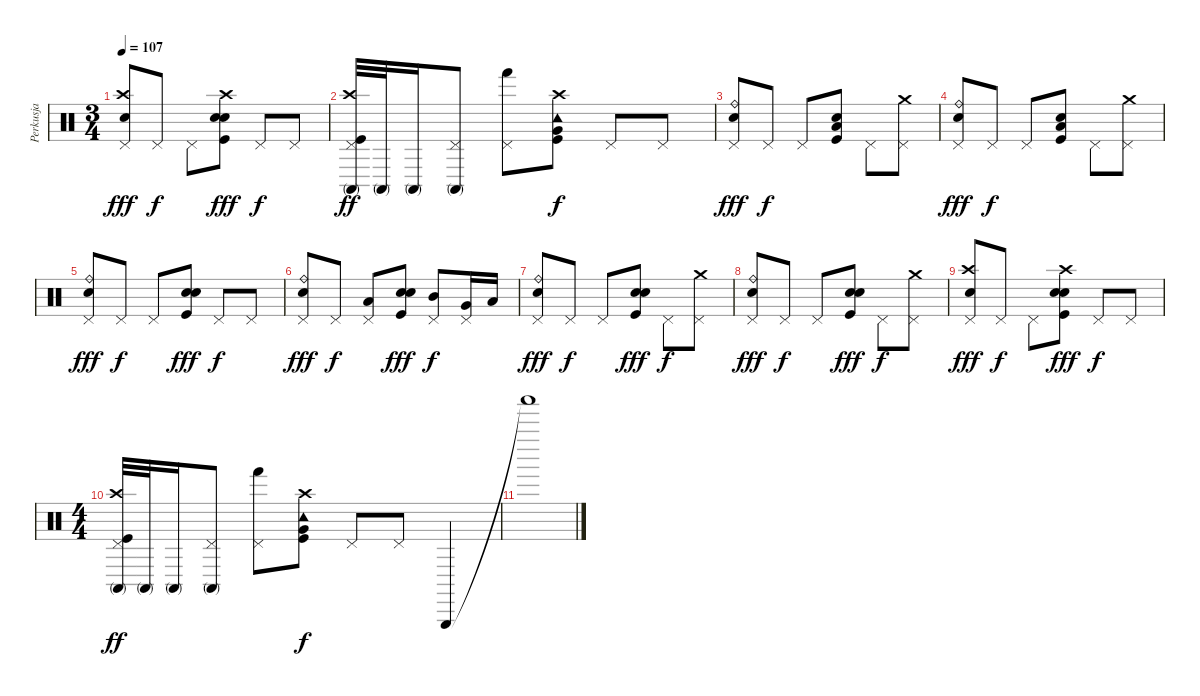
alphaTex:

\track ("Perkusja" "Perkusja") {instrument percussion}
\staff {score}
\articulation defaults
\ts (3 4)
\tempo 107
\clef neutral
\ks c
("Pedal Hi-Hat (hit)" "Crash high (hit)" "Hand Clap (hit)").8{dy fff} "Pedal Hi-Hat (hit)".8{dy f} "Pedal Hi-Hat (hit)".8 ("Electric Snare (hit)" "Kick (hit)" "Crash high (hit)" "Hand Clap (hit)").8{dy fff} "Pedal Hi-Hat (hit)".8{dy f} "Pedal Hi-Hat (hit)".8 |
("Conga high (mute)" "Pedal Hi-Hat (hit)" "Crash high (hit)" "Kick (hit)").32{dy ff} "Conga high (mute)".32 "Conga high (mute)".16 ("Conga high (mute)" "Pedal Hi-Hat (hit)").8 ("Hand (hit)" "Pedal Hi-Hat (hit)").8 ("Tambourine (hit)" "Very Low Tom (hit)" "Crash high (hit)" "Kick (hit)").8{dy f} "Pedal Hi-Hat (hit)".8 "Pedal Hi-Hat (hit)".8 |
("Pedal Hi-Hat (hit)" "Ride (bell)" "Hand Clap (hit)").8{dy fff} "Pedal Hi-Hat (hit)".8{dy f} "Pedal Hi-Hat (hit)".8 ("Electric Snare (hit)" "Kick (hit)" "Low Tom (hit)").8 "Pedal Hi-Hat (hit)".8 ("Pedal Hi-Hat (hit)" "Crash medium (hit)").8 |
("Pedal Hi-Hat (hit)" "Ride (bell)" "Hand Clap (hit)").8{dy fff} "Pedal Hi-Hat (hit)".8{dy f} "Pedal Hi-Hat (hit)".8 ("Electric Snare (hit)" "Kick (hit)" "Low Tom (hit)").8 "Pedal Hi-Hat (hit)".8 ("Pedal Hi-Hat (hit)" "Crash medium (hit)").8 |
("Pedal Hi-Hat (hit)" "Ride (bell)" "Hand Clap (hit)").8{dy fff} "Pedal Hi-Hat (hit)".8{dy f} "Pedal Hi-Hat (hit)".8 ("Electric Snare (hit)" "Kick (hit)" "Hand Clap (hit)").8{dy fff} "Pedal Hi-Hat (hit)".8{dy f} "Pedal Hi-Hat (hit)".8 |
("Pedal Hi-Hat (hit)" "Ride (bell)" "Hand Clap (hit)").8{dy fff} "Pedal Hi-Hat (hit)".8{dy f} ("Pedal Hi-Hat (hit)" "Low Tom (hit)").8 ("Electric Snare (hit)" "Kick (hit)" "Hand Clap (hit)").8{dy fff} ("Pedal Hi-Hat (hit)" "Mid Tom (hit)").8{dy f} ("Pedal Hi-Hat (hit)" "Very Low Tom (hit)").16 "Low Floor Tom (hit)".16 |
("Pedal Hi-Hat (hit)" "Ride (bell)" "Hand Clap (hit)").8{dy fff} "Pedal Hi-Hat (hit)".8{dy f} "Pedal Hi-Hat (hit)".8 ("Electric Snare (hit)" "Kick (hit)" "Hand Clap (hit)").8{dy fff} "Pedal Hi-Hat (hit)".8{dy f} ("Pedal Hi-Hat (hit)" "Crash medium (hit)").8 |
("Pedal Hi-Hat (hit)" "Ride (bell)" "Hand Clap (hit)").8{dy fff} "Pedal Hi-Hat (hit)".8{dy f} "Pedal Hi-Hat (hit)".8 ("Electric Snare (hit)" "Kick (hit)" "Hand Clap (hit)").8{dy fff} "Pedal Hi-Hat (hit)".8{dy f} ("Pedal Hi-Hat (hit)" "Crash medium (hit)").8 |
("Pedal Hi-Hat (hit)" "Crash high (hit)" "Hand Clap (hit)").8{dy fff} "Pedal Hi-Hat (hit)".8{dy f} "Pedal Hi-Hat (hit)".8 ("Electric Snare (hit)" "Kick (hit)" "Crash high (hit)" "Hand Clap (hit)").8{dy fff} "Pedal Hi-Hat (hit)".8{dy f} "Pedal Hi-Hat (hit)".8 |
\ts (4 4)
("Conga high (mute)" "Pedal Hi-Hat (hit)" "Crash high (hit)" "Kick (hit)").32{dy ff} "Conga high (mute)".32 "Conga high (mute)".16 ("Conga high (mute)" "Pedal Hi-Hat (hit)").8 ("Hand (hit)" "Pedal Hi-Hat (hit)").8 ("Tambourine (hit)" "Very Low Tom (hit)" "Crash high (hit)" "Kick (hit)").8{dy f} "Pedal Hi-Hat (hit)".8 "Pedal Hi-Hat (hit)".8 "Triangle (hit)".4 |
"Shaker (hit)"{t}.1
